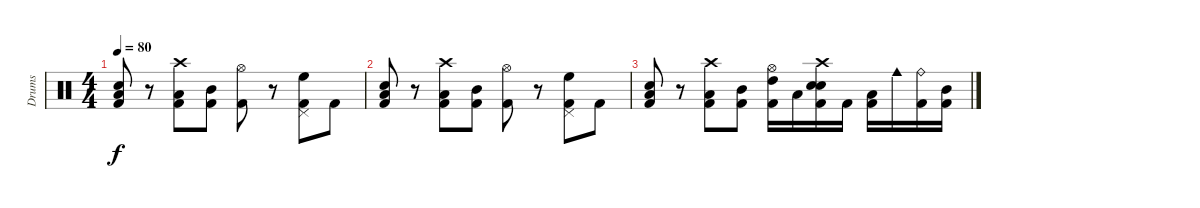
\track ("Drums" "Drums") {instrument percussion}
\staff {score}
\articulation defaults
\ts (4 4)
\tempo 80
\clef neutral
\ks c
("Kick (hit) 2" "Electric Snare (hit)" "Low Floor Tom (hit)").8{dy f} r.8 ("Kick (hit) 2" "Low Floor Tom (hit)" "Crash high (hit)").8 ("Kick (hit) 2" "Mid Tom (hit)").8 ("Kick (hit) 2" "Hi-Hat (open)").8 r.8 ("Kick (hit) 2" "Pedal Hi-Hat (hit)" "High Floor Tom (hit)").8 "Kick (hit) 2".8 |
("Kick (hit) 2" "Electric Snare (hit)" "Low Floor Tom (hit)").8 r.8 ("Kick (hit) 2" "Low Floor Tom (hit)" "Crash high (hit)").8 ("Kick (hit) 2" "Mid Tom (hit)").8 ("Kick (hit) 2" "Hi-Hat (open)").8 r.8 ("Kick (hit) 2" "Pedal Hi-Hat (hit)" "High Floor Tom (hit)").8 "Kick (hit) 2".8 |
("Kick (hit) 2" "Electric Snare (hit)" "Low Floor Tom (hit)").8 r.8 ("Kick (hit) 2" "Low Floor Tom (hit)" "Crash high (hit)").8 ("Kick (hit) 2" "Mid Tom (hit)").8 ("Kick (hit) 2" "Hi-Hat (open)" "High Tom (hit)").16 "Low Tom (hit)".16 ("Kick (hit) 2" "Electric Snare (hit)" "Crash high (hit)" "Electric Snare (hit)").16 "Kick (hit) 2".16 ("Kick (hit) 2" "Low Floor Tom (hit)").16 "Cowbell medium (hit)".16 ("Kick (hit) 2" "Ride (bell)").16 ("Kick (hit) 2" "Mid Tom (hit)").16
